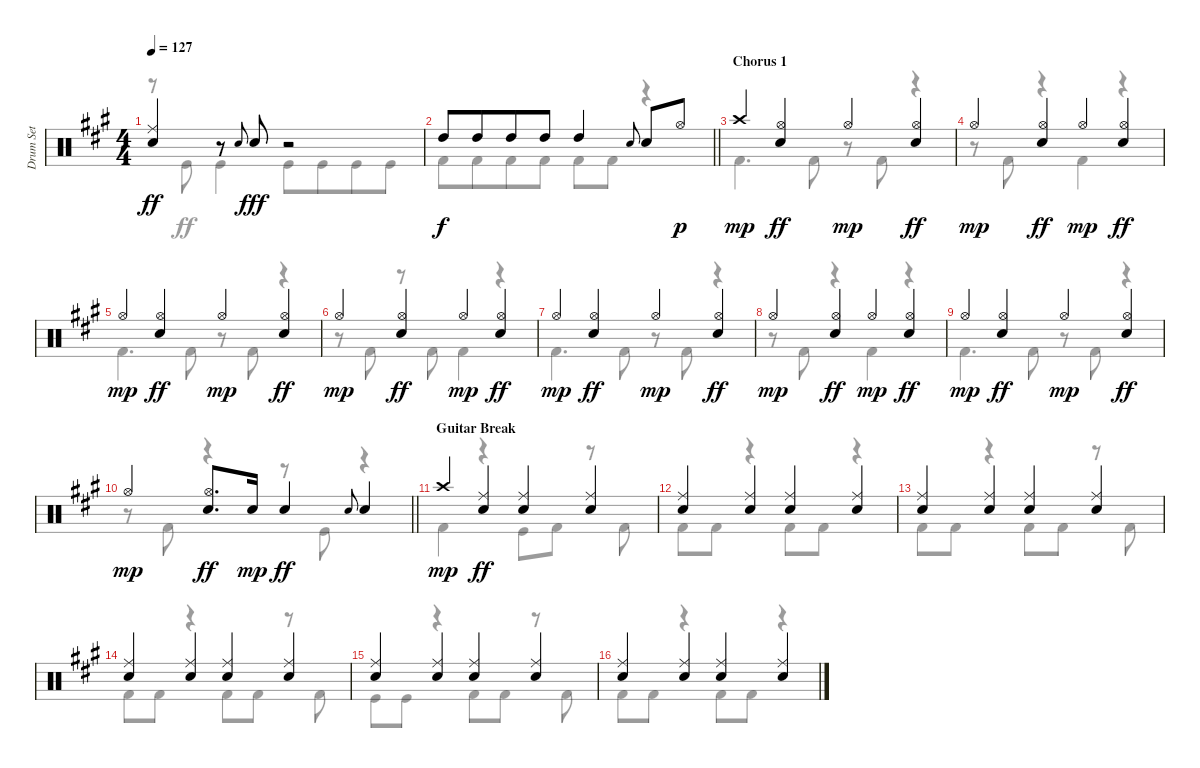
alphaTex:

\track ("Drum Set" "Drum Set") {instrument percussion}
\staff {score}
\articulation defaults
\voice
\ts (4 4)
\tempo 127
\clef neutral
\ks a
("Ride (middle)" "Electric Snare (hit)").4{dy ff} r.8 "Electric Snare (hit)".8{gr onbeat} "Electric Snare (hit)".8{dy fff} r.2 |
\barLineRight lightlight "High Tom (hit)".8{dy f} "High Tom (hit)".8{beam merge} "High Tom (hit)".8 "High Tom (hit)".8 "High Tom (hit)".4 "Electric Snare (hit)".8{gr onbeat} "Electric Snare (hit)".8 "Hi-Hat (open)".8{dy p}
|
\section ("" "Chorus 1")
"Crash high (hit)".4{dy mp} ("Hi-Hat (open)" "Electric Snare (hit)").4{dy ff} "Hi-Hat (open)".4{dy mp} ("Hi-Hat (open)" "Electric Snare (hit)").4{dy ff} |
"Hi-Hat (open)".4{dy mp} ("Hi-Hat (open)" "Electric Snare (hit)").4{dy ff} "Hi-Hat (open)".4{dy mp} ("Hi-Hat (open)" "Electric Snare (hit)").4{dy ff} |
"Hi-Hat (open)".4{dy mp} ("Hi-Hat (open)" "Electric Snare (hit)").4{dy ff} "Hi-Hat (open)".4{dy mp} ("Hi-Hat (open)" "Electric Snare (hit)").4{dy ff} |
"Hi-Hat (open)".4{dy mp} ("Hi-Hat (open)" "Electric Snare (hit)").4{dy ff} "Hi-Hat (open)".4{dy mp} ("Hi-Hat (open)" "Electric Snare (hit)").4{dy ff} |
"Hi-Hat (open)".4{dy mp} ("Hi-Hat (open)" "Electric Snare (hit)").4{dy ff} "Hi-Hat (open)".4{dy mp} ("Hi-Hat (open)" "Electric Snare (hit)").4{dy ff} |
"Hi-Hat (open)".4{dy mp} ("Hi-Hat (open)" "Electric Snare (hit)").4{dy ff} "Hi-Hat (open)".4{dy mp} ("Hi-Hat (open)" "Electric Snare (hit)").4{dy ff} |
"Hi-Hat (open)".4{dy mp} ("Hi-Hat (open)" "Electric Snare (hit)").4{dy ff} "Hi-Hat (open)".4{dy mp} ("Hi-Hat (open)" "Electric Snare (hit)").4{dy ff} |
\barLineRight lightlight "Hi-Hat (open)".4{dy mp}
("Hi-Hat (open)" "Electric Snare (hit)").8{d dy ff} "Electric Snare (hit)".16{dy mp} "Electric Snare (hit)".4{dy ff} "Electric Snare (hit)".8{gr onbeat} "Electric Snare (hit)".4 |
\section ("" "Guitar Break")
"Crash high (hit)".4{dy mp} ("Ride (middle)" "Electric Snare (hit)").4{dy ff} ("Ride (middle)" "Electric Snare (hit)").4 ("Ride (middle)" "Electric Snare (hit)").4 |
("Ride (middle)" "Electric Snare (hit)").4 ("Ride (middle)" "Electric Snare (hit)").4 ("Ride (middle)" "Electric Snare (hit)").4 ("Ride (middle)" "Electric Snare (hit)").4 |
("Ride (middle)" "Electric Snare (hit)").4 ("Ride (middle)" "Electric Snare (hit)").4 ("Ride (middle)" "Electric Snare (hit)").4 ("Ride (middle)" "Electric Snare (hit)").4 |
("Ride (middle)" "Electric Snare (hit)").4 ("Ride (middle)" "Electric Snare (hit)").4 ("Ride (middle)" "Electric Snare (hit)").4 ("Ride (middle)" "Electric Snare (hit)").4 |
("Ride (middle)" "Electric Snare (hit)").4 ("Ride (middle)" "Electric Snare (hit)").4 ("Ride (middle)" "Electric Snare (hit)").4 ("Ride (middle)" "Electric Snare (hit)").4 |
("Ride (middle)" "Electric Snare (hit)").4 ("Ride (middle)" "Electric Snare (hit)").4 ("Ride (middle)" "Electric Snare (hit)").4 ("Ride (middle)" "Electric Snare (hit)").4
\voice
\clef neutral
\ottava regular
\simile none
\ks a
r.8{dy ff} "Kick (hit)".8 "Kick (hit)".4 "Kick (hit)".8 "Kick (hit)".8{beam merge} "Kick (hit)".8 "Kick (hit)".8 |
\barLineRight lightlight "Kick (hit) 2".8 "Kick (hit) 2".8{beam merge} "Kick (hit) 2".8 "Kick (hit) 2".8 "Kick (hit) 2".8 "Kick (hit) 2".8
r.4 |
"Kick (hit) 2".4{d} "Kick (hit) 2".8 r.8 "Kick (hit) 2".8 r.4 |
r.8 "Kick (hit) 2".8 r.4 "Kick (hit) 2".4 r.4 |
"Kick (hit) 2".4{d} "Kick (hit) 2".8 r.8 "Kick (hit) 2".8 r.4 |
r.8 "Kick (hit) 2".8 r.8 "Kick (hit) 2".8 "Kick (hit) 2".4 r.4 |
"Kick (hit) 2".4{d} "Kick (hit) 2".8 r.8 "Kick (hit) 2".8 r.4 |
r.8 "Kick (hit) 2".8 r.4 "Kick (hit) 2".4 r.4 |
"Kick (hit) 2".4{d} "Kick (hit) 2".8 r.8 "Kick (hit) 2".8 r.4 |
\barLineRight lightlight
r.8 "Kick (hit) 2".8 r.4 r.8 "Kick (hit)".8 r.4 |
"Kick (hit) 2".4 r.4 "Kick (hit)".8 "Kick (hit) 2".8 r.8 "Kick (hit) 2".8 |
"Kick (hit) 2".8 "Kick (hit) 2".8 r.4 "Kick (hit) 2".8 "Kick (hit) 2".8 r.4 |
"Kick (hit) 2".8 "Kick (hit) 2".8 r.4 "Kick (hit) 2".8 "Kick (hit) 2".8 r.8 "Kick (hit) 2".8 |
"Kick (hit) 2".8 "Kick (hit) 2".8 r.4 "Kick (hit) 2".8 "Kick (hit) 2".8 r.8 "Kick (hit) 2".8 |
"Kick (hit)".8 "Kick (hit)".8 r.4 "Kick (hit) 2".8 "Kick (hit) 2".8 r.8 "Kick (hit) 2".8 |
"Kick (hit) 2".8 "Kick (hit) 2".8 r.4 "Kick (hit) 2".8 "Kick (hit) 2".8 r.4
